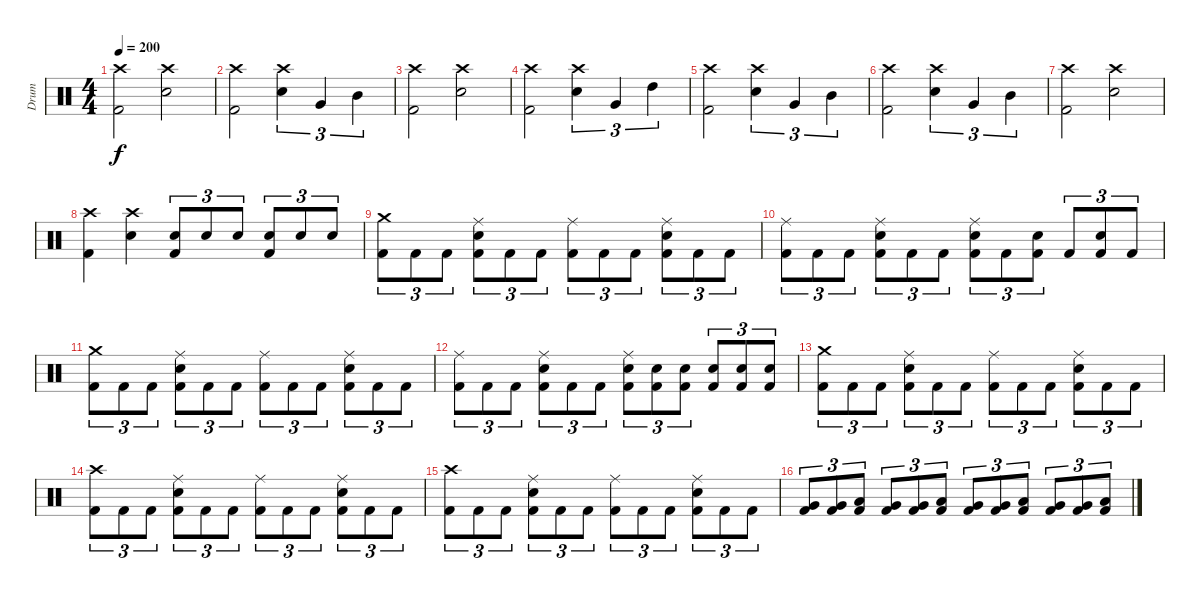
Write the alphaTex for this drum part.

\track ("Drum" "Drum") {instrument percussion}
\staff {score}
\articulation defaults
\ts (4 4)
\tempo 200
\clef neutral
\ks c
("Crash high (hit)" "Kick (hit) 2").2{dy f} ("Crash high (hit)" "Electric Snare (hit)").2 |
("Crash high (hit)" "Kick (hit) 2").2 ("Crash high (hit)" "Electric Snare (hit)").4{tu (3 2)} "Very Low Tom (hit)".4{tu (3 2)} "Mid Tom (hit)".4{tu (3 2)} |
("Crash high (hit)" "Kick (hit) 2").2 ("Crash high (hit)" "Electric Snare (hit)").2 |
("Crash high (hit)" "Kick (hit) 2").2 ("Crash high (hit)" "Electric Snare (hit)").4{tu (3 2)} "Very Low Tom (hit)".4{tu (3 2)} "High Tom (hit)".4{tu (3 2)} |
("Crash high (hit)" "Kick (hit) 2").2 ("Crash high (hit)" "Electric Snare (hit)").4{tu (3 2)} "Very Low Tom (hit)".4{tu (3 2)} "Mid Tom (hit)".4{tu (3 2)} |
("Crash high (hit)" "Kick (hit) 2").2 ("Crash high (hit)" "Electric Snare (hit)").4{tu (3 2)} "Very Low Tom (hit)".4{tu (3 2)} "Mid Tom (hit)".4{tu (3 2)} |
("Crash high (hit)" "Kick (hit) 2").2 ("Crash high (hit)" "Electric Snare (hit)").2 |
("Crash high (hit)" "Kick (hit) 2").4 ("Crash high (hit)" "Electric Snare (hit)").4 ("Electric Snare (hit)" "Kick (hit) 2").8{tu (3 2)} "Electric Snare (hit)".8{tu (3 2)} "Electric Snare (hit)".8{tu (3 2)} ("Electric Snare (hit)" "Kick (hit) 2").8{tu (3 2)} "Electric Snare (hit)".8{tu (3 2)} "Electric Snare (hit)".8{tu (3 2)} |
("Crash medium (hit)" "Kick (hit) 2").8{tu (3 2)} "Kick (hit) 2".8{tu (3 2)} "Kick (hit) 2".8{tu (3 2)} ("Ride (middle)" "Electric Snare (hit)" "Kick (hit) 2").8{tu (3 2)} "Kick (hit) 2".8{tu (3 2)} "Kick (hit) 2".8{tu (3 2)} ("Ride (middle)" "Kick (hit) 2").8{tu (3 2)} "Kick (hit) 2".8{tu (3 2)} "Kick (hit) 2".8{tu (3 2)} ("Ride (middle)" "Electric Snare (hit)" "Kick (hit) 2").8{tu (3 2)} "Kick (hit) 2".8{tu (3 2)} "Kick (hit) 2".8{tu (3 2)} |
("Ride (middle)" "Kick (hit) 2").8{tu (3 2)} "Kick (hit) 2".8{tu (3 2)} "Kick (hit) 2".8{tu (3 2)} ("Ride (middle)" "Electric Snare (hit)" "Kick (hit) 2").8{tu (3 2)} "Kick (hit) 2".8{tu (3 2)} "Kick (hit) 2".8{tu (3 2)} ("Ride (middle)" "Electric Snare (hit)" "Kick (hit) 2").8{tu (3 2)} "Kick (hit) 2".8{tu (3 2)} ("Electric Snare (hit)" "Kick (hit) 2").8{tu (3 2)} "Kick (hit) 2".8{tu (3 2)} ("Electric Snare (hit)" "Kick (hit) 2").8{tu (3 2)} "Kick (hit) 2".8{tu (3 2)} |
("Crash medium (hit)" "Kick (hit) 2").8{tu (3 2)} "Kick (hit) 2".8{tu (3 2)} "Kick (hit) 2".8{tu (3 2)} ("Ride (middle)" "Electric Snare (hit)" "Kick (hit) 2").8{tu (3 2)} "Kick (hit) 2".8{tu (3 2)} "Kick (hit) 2".8{tu (3 2)} ("Ride (middle)" "Kick (hit) 2").8{tu (3 2)} "Kick (hit) 2".8{tu (3 2)} "Kick (hit) 2".8{tu (3 2)} ("Ride (middle)" "Electric Snare (hit)" "Kick (hit) 2").8{tu (3 2)} "Kick (hit) 2".8{tu (3 2)} "Kick (hit) 2".8{tu (3 2)} |
("Ride (middle)" "Kick (hit) 2").8{tu (3 2)} "Kick (hit) 2".8{tu (3 2)} "Kick (hit) 2".8{tu (3 2)} ("Ride (middle)" "Electric Snare (hit)" "Kick (hit) 2").8{tu (3 2)} "Kick (hit) 2".8{tu (3 2)} "Kick (hit) 2".8{tu (3 2)} ("Ride (middle)" "Electric Snare (hit)" "Kick (hit) 2").8{tu (3 2)} ("Electric Snare (hit)" "Kick (hit) 2").8{tu (3 2)} ("Electric Snare (hit)" "Kick (hit) 2").8{tu (3 2)} ("Electric Snare (hit)" "Kick (hit) 2").8{tu (3 2)} ("Electric Snare (hit)" "Kick (hit) 2").8{tu (3 2)} ("Electric Snare (hit)" "Kick (hit) 2").8{tu (3 2)} |
("Crash medium (hit)" "Kick (hit) 2").8{tu (3 2)} "Kick (hit) 2".8{tu (3 2)} "Kick (hit) 2".8{tu (3 2)} ("Ride (middle)" "Electric Snare (hit)" "Kick (hit) 2").8{tu (3 2)} "Kick (hit) 2".8{tu (3 2)} "Kick (hit) 2".8{tu (3 2)} ("Ride (middle)" "Kick (hit) 2").8{tu (3 2)} "Kick (hit) 2".8{tu (3 2)} "Kick (hit) 2".8{tu (3 2)} ("Ride (middle)" "Electric Snare (hit)" "Kick (hit) 2").8{tu (3 2)} "Kick (hit) 2".8{tu (3 2)} "Kick (hit) 2".8{tu (3 2)} |
("Crash high (hit)" "Kick (hit) 2").8{tu (3 2)} "Kick (hit) 2".8{tu (3 2)} "Kick (hit) 2".8{tu (3 2)} ("Ride (middle)" "Electric Snare (hit)" "Kick (hit) 2").8{tu (3 2)} "Kick (hit) 2".8{tu (3 2)} "Kick (hit) 2".8{tu (3 2)} ("Ride (middle)" "Kick (hit) 2").8{tu (3 2)} "Kick (hit) 2".8{tu (3 2)} "Kick (hit) 2".8{tu (3 2)} ("Ride (middle)" "Electric Snare (hit)" "Kick (hit) 2").8{tu (3 2)} "Kick (hit) 2".8{tu (3 2)} "Kick (hit) 2".8{tu (3 2)} |
("Crash high (hit)" "Kick (hit) 2").8{tu (3 2)} "Kick (hit) 2".8{tu (3 2)} "Kick (hit) 2".8{tu (3 2)} ("Ride (middle)" "Electric Snare (hit)" "Kick (hit) 2").8{tu (3 2)} "Kick (hit) 2".8{tu (3 2)} "Kick (hit) 2".8{tu (3 2)} ("Ride (middle)" "Kick (hit) 2").8{tu (3 2)} "Kick (hit) 2".8{tu (3 2)} "Kick (hit) 2".8{tu (3 2)} ("Ride (middle)" "Electric Snare (hit)" "Kick (hit) 2").8{tu (3 2)} "Kick (hit) 2".8{tu (3 2)} "Kick (hit) 2".8{tu (3 2)} |
("Very Low Tom (hit)" "Kick (hit) 2").8{tu (3 2)} ("Very Low Tom (hit)" "Kick (hit) 2").8{tu (3 2)} ("Low Floor Tom (hit)" "Kick (hit) 2").8{tu (3 2)} ("Very Low Tom (hit)" "Kick (hit) 2").8{tu (3 2)} ("Very Low Tom (hit)" "Kick (hit) 2").8{tu (3 2)} ("Low Floor Tom (hit)" "Kick (hit) 2").8{tu (3 2)} ("Very Low Tom (hit)" "Kick (hit) 2").8{tu (3 2)} ("Very Low Tom (hit)" "Kick (hit) 2").8{tu (3 2)} ("Low Floor Tom (hit)" "Kick (hit) 2").8{tu (3 2)} ("Very Low Tom (hit)" "Kick (hit) 2").8{tu (3 2)} ("Very Low Tom (hit)" "Kick (hit) 2").8{tu (3 2)} ("Low Floor Tom (hit)" "Kick (hit) 2").8{tu (3 2)}
